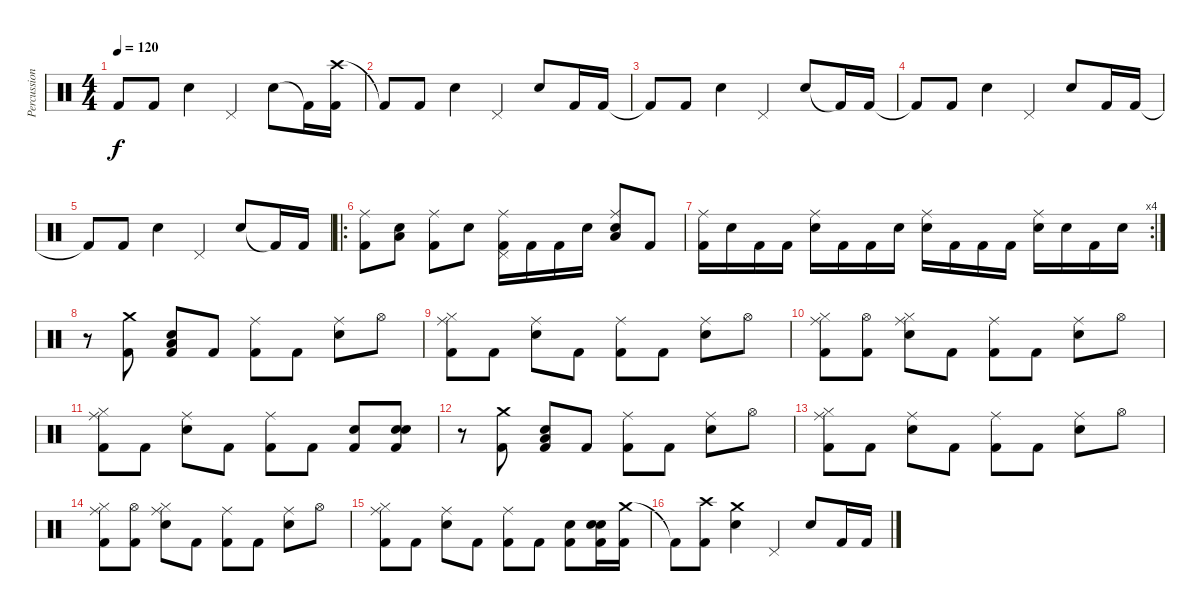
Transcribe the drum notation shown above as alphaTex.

\track ("Percussioni" "Percussion") {instrument percussion}
\staff {score}
\articulation defaults
\ts (4 4)
\tempo 120
\clef neutral
\ks c "Kick (hit) 2"{t}.8{dy f} "Kick (hit) 2".8 "Electric Snare (hit)".4 "Pedal Hi-Hat (hit)".4 "Electric Snare (hit)".8 "Kick (hit) 2"{t}.16
("Crash high (hit)" "Kick (hit) 2").16 |
"Kick (hit) 2"{t}.8 "Kick (hit) 2".8 "Electric Snare (hit)".4 "Pedal Hi-Hat (hit)".4 "Electric Snare (hit)".8 "Kick (hit) 2".16 "Kick (hit) 2".16 |
"Kick (hit) 2"{t}.8 "Kick (hit) 2".8 "Electric Snare (hit)".4 "Pedal Hi-Hat (hit)".4 "Electric Snare (hit)".8 "Kick (hit) 2"{t}.16 "Kick (hit) 2".16 |
"Kick (hit) 2"{t}.8 "Kick (hit) 2".8 "Electric Snare (hit)".4 "Pedal Hi-Hat (hit)".4 "Electric Snare (hit)".8 "Kick (hit) 2".16 "Kick (hit) 2".16 |
"Kick (hit) 2"{t}.8 "Kick (hit) 2".8 "Electric Snare (hit)".4 "Pedal Hi-Hat (hit)".4 "Electric Snare (hit)".8 "Kick (hit) 2"{t}.16 "Kick (hit) 2".16 |
\ro
("Ride (middle)" "Kick (hit) 2").8 ("Low Floor Tom (hit)" "Electric Snare (hit)").8 ("Ride (middle)" "Kick (hit) 2").8 "Electric Snare (hit)".8 ("Ride (middle)" "Pedal Hi-Hat (hit)" "Kick (hit) 2").16 "Kick (hit) 2".16 "Kick (hit) 2".16 "Snare (hit) 2".16 ("Ride (middle)" "Low Floor Tom (hit)" "Electric Snare (hit)").8 "Kick (hit) 2".8 |
\rc 4
("Ride (middle)" "Kick (hit) 2").16 "Electric Snare (hit)".16 "Kick (hit) 2".16 "Kick (hit) 2".16 ("Ride (middle)" "Electric Snare (hit)").16 "Kick (hit) 2".16 "Kick (hit) 2".16 "Snare (hit) 2".16 ("Ride (middle)" "Electric Snare (hit)").16 "Kick (hit) 2".16 "Kick (hit) 2".16 "Kick (hit) 2".16 ("Ride (middle)" "Electric Snare (hit)").16 "Snare (hit) 2".16 "Kick (hit) 2".16 "Electric Snare (hit)".16 |
r.8 ("Crash medium (hit)" "Kick (hit) 2").8 ("Low Floor Tom (hit)" "Electric Snare (hit)" "Kick (hit) 2").8 "Kick (hit) 2".8 ("Ride (middle)" "Kick (hit) 2").8 "Kick (hit) 2".8 ("Ride (middle)" "Electric Snare (hit)").8 "Hi-Hat (open)".8 |
("Ride (middle)" "Hi-Hat (closed)" "Kick (hit) 2").8 "Kick (hit) 2".8 ("Ride (middle)" "Electric Snare (hit)").8 "Kick (hit) 2".8 ("Ride (middle)" "Kick (hit) 2").8 "Kick (hit) 2".8 ("Ride (middle)" "Electric Snare (hit)").8 "Hi-Hat (open)".8 |
("Ride (middle)" "Hi-Hat (closed)" "Kick (hit) 2").8 ("Hi-Hat (open)" "Kick (hit) 2").8 ("Hi-Hat (closed)" "Ride (middle)" "Electric Snare (hit)").8 "Kick (hit) 2".8 ("Ride (middle)" "Kick (hit) 2").8 "Kick (hit) 2".8 ("Ride (middle)" "Electric Snare (hit)").8 "Hi-Hat (open)".8 |
("Ride (middle)" "Hi-Hat (closed)" "Kick (hit) 2").8 "Kick (hit) 2".8 ("Ride (middle)" "Electric Snare (hit)").8 "Kick (hit) 2".8 ("Ride (middle)" "Kick (hit) 2").8 "Kick (hit) 2".8 ("Kick (hit) 2" "Electric Snare (hit)").8 ("Snare (hit) 2" "Kick (hit) 2" "Electric Snare (hit)").8 |
r.8 ("Crash medium (hit)" "Kick (hit) 2").8 ("Low Floor Tom (hit)" "Electric Snare (hit)" "Kick (hit) 2").8 "Kick (hit) 2".8 ("Ride (middle)" "Kick (hit) 2").8 "Kick (hit) 2".8 ("Ride (middle)" "Electric Snare (hit)").8 "Hi-Hat (open)".8 |
("Ride (middle)" "Hi-Hat (closed)" "Kick (hit) 2").8 "Kick (hit) 2".8 ("Ride (middle)" "Electric Snare (hit)").8 "Kick (hit) 2".8 ("Ride (middle)" "Kick (hit) 2").8 "Kick (hit) 2".8 ("Ride (middle)" "Electric Snare (hit)").8 "Hi-Hat (open)".8 |
("Ride (middle)" "Hi-Hat (closed)" "Kick (hit) 2").8 ("Hi-Hat (open)" "Kick (hit) 2").8 ("Hi-Hat (closed)" "Ride (middle)" "Electric Snare (hit)").8 "Kick (hit) 2".8 ("Ride (middle)" "Kick (hit) 2").8 "Kick (hit) 2".8 ("Ride (middle)" "Electric Snare (hit)").8 "Hi-Hat (open)".8 |
("Ride (middle)" "Hi-Hat (closed)" "Kick (hit) 2").8 "Kick (hit) 2".8 ("Ride (middle)" "Electric Snare (hit)").8 "Kick (hit) 2".8 ("Ride (middle)" "Kick (hit) 2").8 "Kick (hit) 2".8 ("Kick (hit) 2" "Electric Snare (hit)").8 ("Snare (hit) 2" "Kick (hit) 2" "Electric Snare (hit)").16 ("Crash medium (hit)" "Kick (hit) 2").16 |
"Kick (hit) 2"{t}.8 ("Crash high (hit)" "Kick (hit) 2").8 ("Crash medium (hit)" "Electric Snare (hit)").4 "Pedal Hi-Hat (hit)".4 "Electric Snare (hit)".8 "Kick (hit) 2".16 "Kick (hit) 2".16
